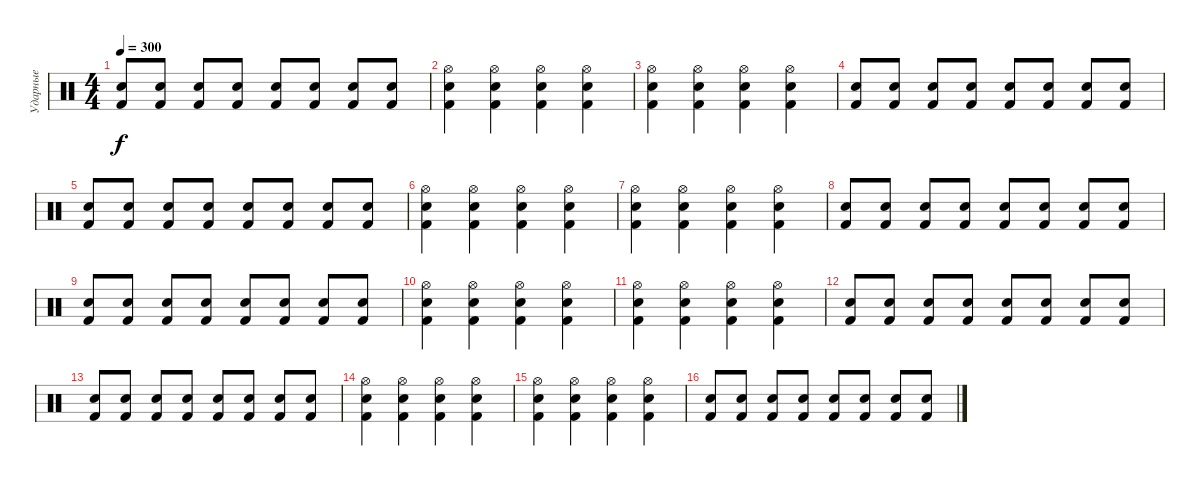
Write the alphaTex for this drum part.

\track ("Ударные" "Ударные") {instrument percussion}
\staff {score}
\articulation defaults
\ts (4 4)
\tempo 300
\clef neutral
\ks c
("Kick (hit) 2" "Electric Snare (hit)").8{dy f} ("Kick (hit) 2" "Electric Snare (hit)").8 ("Kick (hit) 2" "Electric Snare (hit)").8 ("Kick (hit) 2" "Electric Snare (hit)").8 ("Kick (hit) 2" "Electric Snare (hit)").8 ("Kick (hit) 2" "Electric Snare (hit)").8 ("Kick (hit) 2" "Electric Snare (hit)").8 ("Kick (hit) 2" "Electric Snare (hit)").8 |
("Hi-Hat (open)" "Electric Snare (hit)" "Kick (hit) 2").4 ("Hi-Hat (open)" "Electric Snare (hit)" "Kick (hit) 2").4 ("Hi-Hat (open)" "Electric Snare (hit)" "Kick (hit) 2").4 ("Hi-Hat (open)" "Electric Snare (hit)" "Kick (hit) 2").4 |
("Hi-Hat (open)" "Electric Snare (hit)" "Kick (hit) 2").4 ("Hi-Hat (open)" "Electric Snare (hit)" "Kick (hit) 2").4 ("Hi-Hat (open)" "Electric Snare (hit)" "Kick (hit) 2").4 ("Hi-Hat (open)" "Electric Snare (hit)" "Kick (hit) 2").4 |
("Kick (hit) 2" "Electric Snare (hit)").8 ("Kick (hit) 2" "Electric Snare (hit)").8 ("Kick (hit) 2" "Electric Snare (hit)").8 ("Kick (hit) 2" "Electric Snare (hit)").8 ("Kick (hit) 2" "Electric Snare (hit)").8 ("Kick (hit) 2" "Electric Snare (hit)").8 ("Kick (hit) 2" "Electric Snare (hit)").8 ("Kick (hit) 2" "Electric Snare (hit)").8 |
("Kick (hit) 2" "Electric Snare (hit)").8 ("Kick (hit) 2" "Electric Snare (hit)").8 ("Kick (hit) 2" "Electric Snare (hit)").8 ("Kick (hit) 2" "Electric Snare (hit)").8 ("Kick (hit) 2" "Electric Snare (hit)").8 ("Kick (hit) 2" "Electric Snare (hit)").8 ("Kick (hit) 2" "Electric Snare (hit)").8 ("Kick (hit) 2" "Electric Snare (hit)").8 |
("Hi-Hat (open)" "Electric Snare (hit)" "Kick (hit) 2").4 ("Hi-Hat (open)" "Electric Snare (hit)" "Kick (hit) 2").4 ("Hi-Hat (open)" "Electric Snare (hit)" "Kick (hit) 2").4 ("Hi-Hat (open)" "Electric Snare (hit)" "Kick (hit) 2").4 |
("Hi-Hat (open)" "Electric Snare (hit)" "Kick (hit) 2").4 ("Hi-Hat (open)" "Electric Snare (hit)" "Kick (hit) 2").4 ("Hi-Hat (open)" "Electric Snare (hit)" "Kick (hit) 2").4 ("Hi-Hat (open)" "Electric Snare (hit)" "Kick (hit) 2").4 |
("Kick (hit) 2" "Electric Snare (hit)").8 ("Kick (hit) 2" "Electric Snare (hit)").8 ("Kick (hit) 2" "Electric Snare (hit)").8 ("Kick (hit) 2" "Electric Snare (hit)").8 ("Kick (hit) 2" "Electric Snare (hit)").8 ("Kick (hit) 2" "Electric Snare (hit)").8 ("Kick (hit) 2" "Electric Snare (hit)").8 ("Kick (hit) 2" "Electric Snare (hit)").8 |
("Kick (hit) 2" "Electric Snare (hit)").8 ("Kick (hit) 2" "Electric Snare (hit)").8 ("Kick (hit) 2" "Electric Snare (hit)").8 ("Kick (hit) 2" "Electric Snare (hit)").8 ("Kick (hit) 2" "Electric Snare (hit)").8 ("Kick (hit) 2" "Electric Snare (hit)").8 ("Kick (hit) 2" "Electric Snare (hit)").8 ("Kick (hit) 2" "Electric Snare (hit)").8 |
("Hi-Hat (open)" "Electric Snare (hit)" "Kick (hit) 2").4 ("Hi-Hat (open)" "Electric Snare (hit)" "Kick (hit) 2").4 ("Hi-Hat (open)" "Electric Snare (hit)" "Kick (hit) 2").4 ("Hi-Hat (open)" "Electric Snare (hit)" "Kick (hit) 2").4 |
("Hi-Hat (open)" "Electric Snare (hit)" "Kick (hit) 2").4 ("Hi-Hat (open)" "Electric Snare (hit)" "Kick (hit) 2").4 ("Hi-Hat (open)" "Electric Snare (hit)" "Kick (hit) 2").4 ("Hi-Hat (open)" "Electric Snare (hit)" "Kick (hit) 2").4 |
("Kick (hit) 2" "Electric Snare (hit)").8 ("Kick (hit) 2" "Electric Snare (hit)").8 ("Kick (hit) 2" "Electric Snare (hit)").8 ("Kick (hit) 2" "Electric Snare (hit)").8 ("Kick (hit) 2" "Electric Snare (hit)").8 ("Kick (hit) 2" "Electric Snare (hit)").8 ("Kick (hit) 2" "Electric Snare (hit)").8 ("Kick (hit) 2" "Electric Snare (hit)").8 |
("Kick (hit) 2" "Electric Snare (hit)").8 ("Kick (hit) 2" "Electric Snare (hit)").8 ("Kick (hit) 2" "Electric Snare (hit)").8 ("Kick (hit) 2" "Electric Snare (hit)").8 ("Kick (hit) 2" "Electric Snare (hit)").8 ("Kick (hit) 2" "Electric Snare (hit)").8 ("Kick (hit) 2" "Electric Snare (hit)").8 ("Kick (hit) 2" "Electric Snare (hit)").8 |
("Hi-Hat (open)" "Electric Snare (hit)" "Kick (hit) 2").4 ("Hi-Hat (open)" "Electric Snare (hit)" "Kick (hit) 2").4 ("Hi-Hat (open)" "Electric Snare (hit)" "Kick (hit) 2").4 ("Hi-Hat (open)" "Electric Snare (hit)" "Kick (hit) 2").4 |
("Hi-Hat (open)" "Electric Snare (hit)" "Kick (hit) 2").4 ("Hi-Hat (open)" "Electric Snare (hit)" "Kick (hit) 2").4 ("Hi-Hat (open)" "Electric Snare (hit)" "Kick (hit) 2").4 ("Hi-Hat (open)" "Electric Snare (hit)" "Kick (hit) 2").4 |
("Kick (hit) 2" "Electric Snare (hit)").8 ("Kick (hit) 2" "Electric Snare (hit)").8 ("Kick (hit) 2" "Electric Snare (hit)").8 ("Kick (hit) 2" "Electric Snare (hit)").8 ("Kick (hit) 2" "Electric Snare (hit)").8 ("Kick (hit) 2" "Electric Snare (hit)").8 ("Kick (hit) 2" "Electric Snare (hit)").8 ("Kick (hit) 2" "Electric Snare (hit)").8
